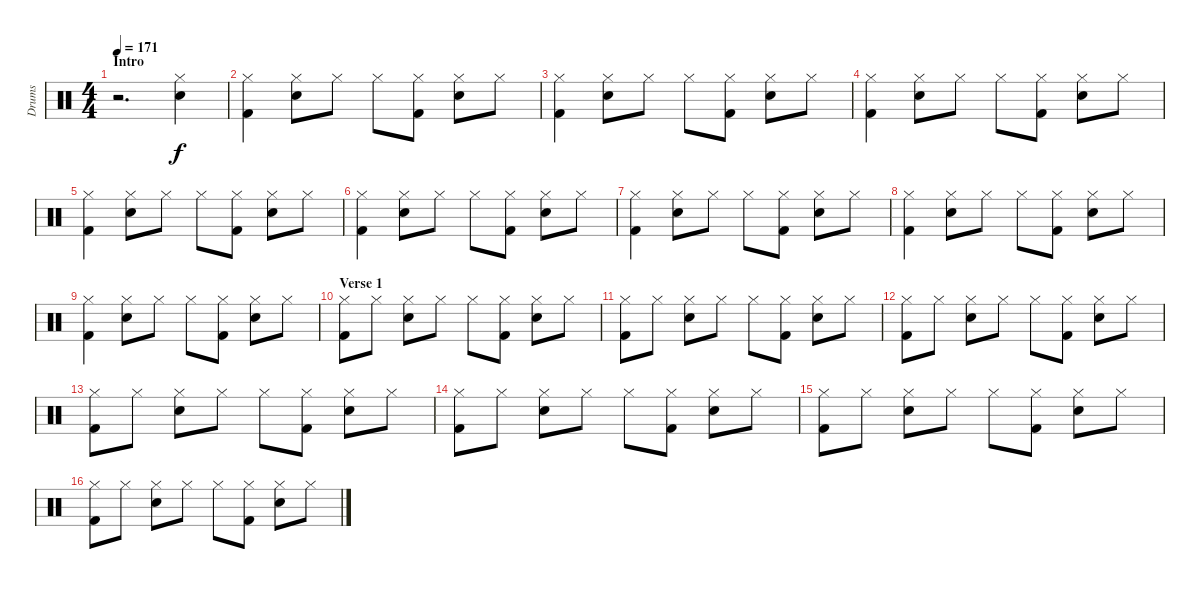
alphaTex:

\track ("Drums" "Drums") {instrument percussion}
\staff {score}
\articulation defaults
\ts (4 4)
\section ("" "Intro")
\tempo 171
\clef neutral
\ks c
r.2{d dy f} ("Hi-Hat (closed)" "Electric Snare (hit)").4 |
("Hi-Hat (closed)" "Kick (hit) 2").4 ("Hi-Hat (closed)" "Electric Snare (hit)").8 "Hi-Hat (closed)".8 "Hi-Hat (closed)".8 ("Hi-Hat (closed)" "Kick (hit) 2").8 ("Hi-Hat (closed)" "Electric Snare (hit)").8 "Hi-Hat (closed)".8 |
("Hi-Hat (closed)" "Kick (hit) 2").4 ("Hi-Hat (closed)" "Electric Snare (hit)").8 "Hi-Hat (closed)".8 "Hi-Hat (closed)".8 ("Hi-Hat (closed)" "Kick (hit) 2").8 ("Hi-Hat (closed)" "Electric Snare (hit)").8 "Hi-Hat (closed)".8 |
("Hi-Hat (closed)" "Kick (hit) 2").4 ("Hi-Hat (closed)" "Electric Snare (hit)").8 "Hi-Hat (closed)".8 "Hi-Hat (closed)".8 ("Hi-Hat (closed)" "Kick (hit) 2").8 ("Hi-Hat (closed)" "Electric Snare (hit)").8 "Hi-Hat (closed)".8 |
("Hi-Hat (closed)" "Kick (hit) 2").4 ("Hi-Hat (closed)" "Electric Snare (hit)").8 "Hi-Hat (closed)".8 "Hi-Hat (closed)".8 ("Hi-Hat (closed)" "Kick (hit) 2").8 ("Hi-Hat (closed)" "Electric Snare (hit)").8 "Hi-Hat (closed)".8 |
("Hi-Hat (closed)" "Kick (hit) 2").4 ("Hi-Hat (closed)" "Electric Snare (hit)").8 "Hi-Hat (closed)".8 "Hi-Hat (closed)".8 ("Hi-Hat (closed)" "Kick (hit) 2").8 ("Hi-Hat (closed)" "Electric Snare (hit)").8 "Hi-Hat (closed)".8 |
("Hi-Hat (closed)" "Kick (hit) 2").4 ("Hi-Hat (closed)" "Electric Snare (hit)").8 "Hi-Hat (closed)".8 "Hi-Hat (closed)".8 ("Hi-Hat (closed)" "Kick (hit) 2").8 ("Hi-Hat (closed)" "Electric Snare (hit)").8 "Hi-Hat (closed)".8 |
("Hi-Hat (closed)" "Kick (hit) 2").4 ("Hi-Hat (closed)" "Electric Snare (hit)").8 "Hi-Hat (closed)".8 "Hi-Hat (closed)".8 ("Hi-Hat (closed)" "Kick (hit) 2").8 ("Hi-Hat (closed)" "Electric Snare (hit)").8 "Hi-Hat (closed)".8 |
("Hi-Hat (closed)" "Kick (hit) 2").4 ("Hi-Hat (closed)" "Electric Snare (hit)").8 "Hi-Hat (closed)".8 "Hi-Hat (closed)".8 ("Hi-Hat (closed)" "Kick (hit) 2").8 ("Hi-Hat (closed)" "Electric Snare (hit)").8 "Hi-Hat (closed)".8 |
\section ("" "Verse 1")
("Hi-Hat (closed)" "Kick (hit) 2").8 "Hi-Hat (closed)".8 ("Hi-Hat (closed)" "Electric Snare (hit)").8 "Hi-Hat (closed)".8 "Hi-Hat (closed)".8 ("Hi-Hat (closed)" "Kick (hit) 2").8 ("Hi-Hat (closed)" "Electric Snare (hit)").8 "Hi-Hat (closed)".8 |
("Hi-Hat (closed)" "Kick (hit) 2").8 "Hi-Hat (closed)".8 ("Hi-Hat (closed)" "Electric Snare (hit)").8 "Hi-Hat (closed)".8 "Hi-Hat (closed)".8 ("Hi-Hat (closed)" "Kick (hit) 2").8 ("Hi-Hat (closed)" "Electric Snare (hit)").8 "Hi-Hat (closed)".8 |
("Hi-Hat (closed)" "Kick (hit) 2").8 "Hi-Hat (closed)".8 ("Hi-Hat (closed)" "Electric Snare (hit)").8 "Hi-Hat (closed)".8 "Hi-Hat (closed)".8 ("Hi-Hat (closed)" "Kick (hit) 2").8 ("Hi-Hat (closed)" "Electric Snare (hit)").8 "Hi-Hat (closed)".8 |
("Hi-Hat (closed)" "Kick (hit) 2").8 "Hi-Hat (closed)".8 ("Hi-Hat (closed)" "Electric Snare (hit)").8 "Hi-Hat (closed)".8 "Hi-Hat (closed)".8 ("Hi-Hat (closed)" "Kick (hit) 2").8 ("Hi-Hat (closed)" "Electric Snare (hit)").8 "Hi-Hat (closed)".8 |
("Hi-Hat (closed)" "Kick (hit) 2").8 "Hi-Hat (closed)".8 ("Hi-Hat (closed)" "Electric Snare (hit)").8 "Hi-Hat (closed)".8 "Hi-Hat (closed)".8 ("Hi-Hat (closed)" "Kick (hit) 2").8 ("Hi-Hat (closed)" "Electric Snare (hit)").8 "Hi-Hat (closed)".8 |
("Hi-Hat (closed)" "Kick (hit) 2").8 "Hi-Hat (closed)".8 ("Hi-Hat (closed)" "Electric Snare (hit)").8 "Hi-Hat (closed)".8 "Hi-Hat (closed)".8 ("Hi-Hat (closed)" "Kick (hit) 2").8 ("Hi-Hat (closed)" "Electric Snare (hit)").8 "Hi-Hat (closed)".8 |
("Hi-Hat (closed)" "Kick (hit) 2").8 "Hi-Hat (closed)".8 ("Hi-Hat (closed)" "Electric Snare (hit)").8 "Hi-Hat (closed)".8 "Hi-Hat (closed)".8 ("Hi-Hat (closed)" "Kick (hit) 2").8 ("Hi-Hat (closed)" "Electric Snare (hit)").8 "Hi-Hat (closed)".8
